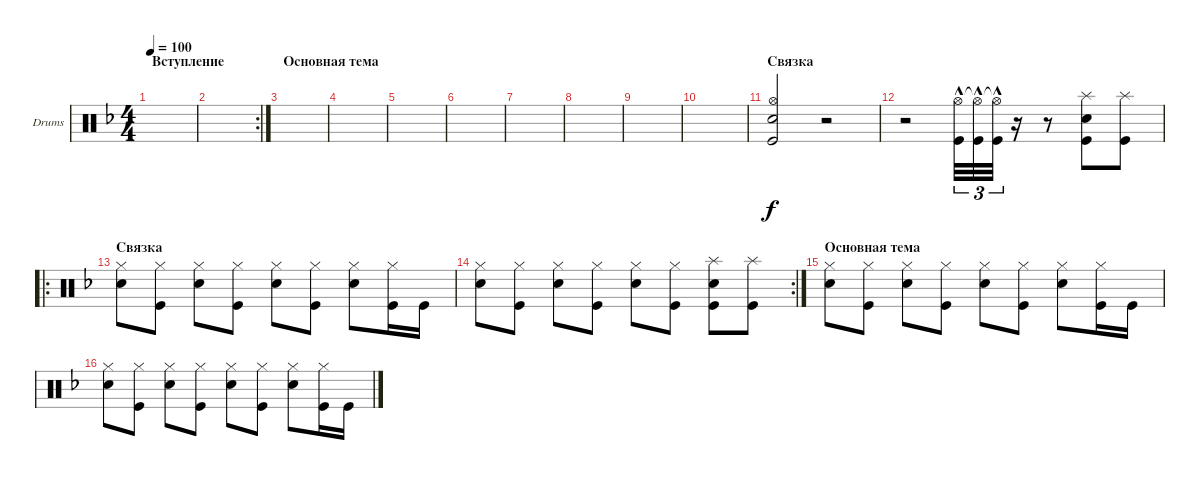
\bracketExtendMode groupsimilarinstruments
\firstSystemTrackNameOrientation horizontal
\otherSystemsTrackNameOrientation horizontal
\track ("БАРАБАНЫ" "Drums") {solo instrument percussion}
\staff {score}
\articulation defaults
\ts (4 4)
\section ("" "Вступление")
\tempo 100
\clef neutral
\ks dminor
|
\rc 2
|
\section ("" "Основная тема")
|
|
|
|
|
|
|
|
\section ("" "Связка")
("Kick (hit)" "Hi-Hat (open)" "Snare (hit) 2").2 r.2 |
r.2 ("Kick (hit)"{hac} "Hi-Hat (open)").32{tu (3 2)} ("Kick (hit)"{hac} "Hi-Hat (open)"{t}).32{tu (3 2)} ("Kick (hit)"{hac} "Hi-Hat (open)"{t}).32{tu (3 2)} r.16 r.8 ("Kick (hit)" "Snare (hit) 2" "Splash (hit)").8 ("Kick (hit)" "Splash (hit)").8 |
\ro
\section ("" "Связка")
("Snare (hit) 2" "Hi-Hat (closed)").8 ("Hi-Hat (closed)" "Kick (hit)").8 ("Snare (hit) 2" "Hi-Hat (closed)").8 ("Hi-Hat (closed)" "Kick (hit)").8 ("Snare (hit) 2" "Hi-Hat (closed)").8 ("Hi-Hat (closed)" "Kick (hit)").8 ("Snare (hit) 2" "Hi-Hat (closed)").8 ("Hi-Hat (closed)" "Kick (hit)").16 "Kick (hit)".16 |
\rc 2
("Snare (hit) 2" "Hi-Hat (closed)").8 ("Hi-Hat (closed)" "Kick (hit)").8 ("Snare (hit) 2" "Hi-Hat (closed)").8 ("Hi-Hat (closed)" "Kick (hit)").8 ("Snare (hit) 2" "Hi-Hat (closed)").8 ("Hi-Hat (closed)" "Kick (hit)").8 ("Kick (hit)" "Splash (hit)" "Snare (hit) 2").8 ("Kick (hit)" "Splash (hit)").8 |
\section ("" "Основная тема")
("Snare (hit) 2" "Hi-Hat (closed)").8 ("Hi-Hat (closed)" "Kick (hit)").8 ("Snare (hit) 2" "Hi-Hat (closed)").8 ("Hi-Hat (closed)" "Kick (hit)").8 ("Snare (hit) 2" "Hi-Hat (closed)").8 ("Hi-Hat (closed)" "Kick (hit)").8 ("Snare (hit) 2" "Hi-Hat (closed)").8 ("Hi-Hat (closed)" "Kick (hit)").16 "Kick (hit)".16 |
("Snare (hit) 2" "Hi-Hat (closed)").8 ("Hi-Hat (closed)" "Kick (hit)").8 ("Snare (hit) 2" "Hi-Hat (closed)").8 ("Hi-Hat (closed)" "Kick (hit)").8 ("Snare (hit) 2" "Hi-Hat (closed)").8 ("Hi-Hat (closed)" "Kick (hit)").8 ("Snare (hit) 2" "Hi-Hat (closed)").8 ("Hi-Hat (closed)" "Kick (hit)").16 "Kick (hit)".16
